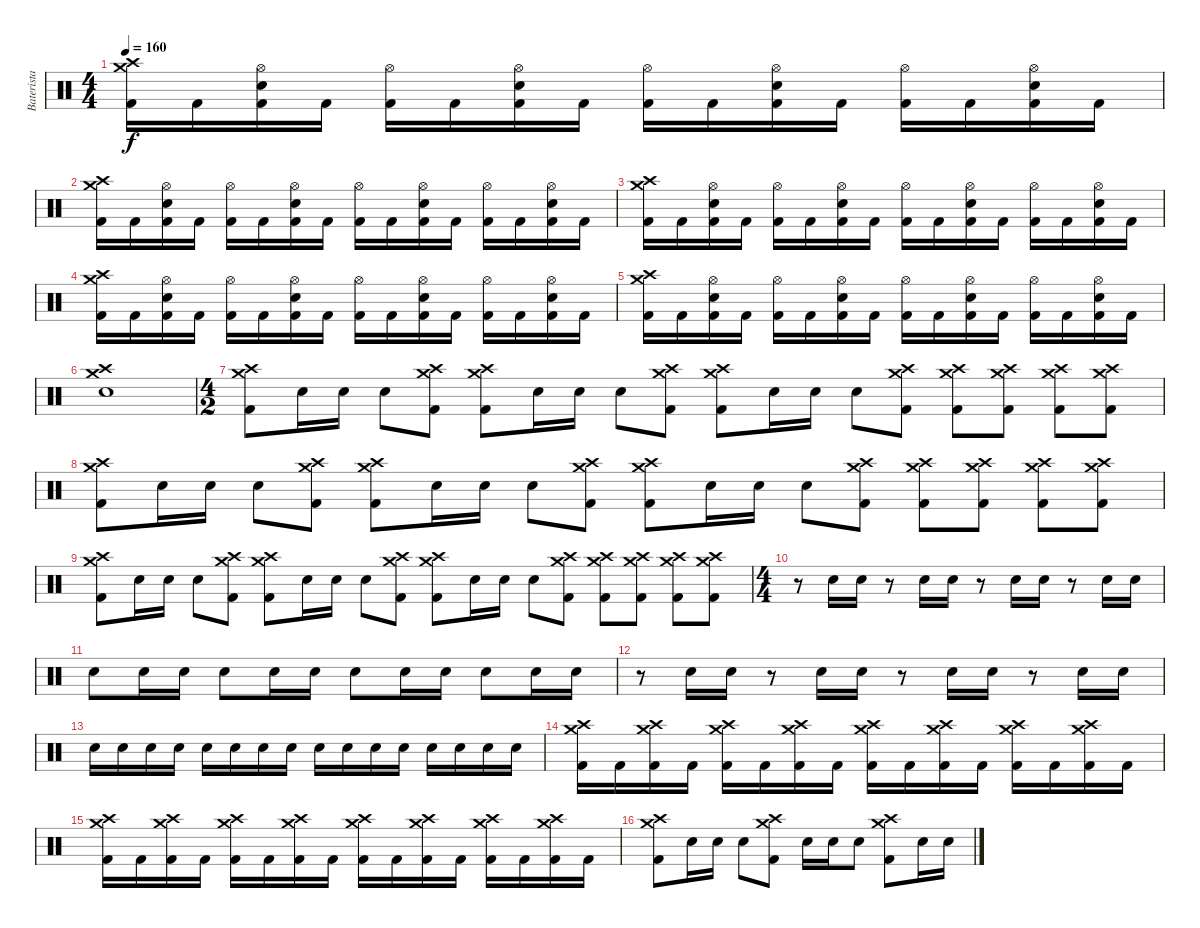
\track ("Baterista" "Baterista") {instrument percussion}
\staff {score}
\articulation defaults
\ts (4 4)
\tempo 160
\clef neutral
\ks c
("Kick (hit) 2" "Crash high (hit)" "Crash medium (hit)").16{dy f} "Kick (hit) 2".16 ("Kick (hit) 2" "Electric Snare (hit)" "Hi-Hat (open)").16 "Kick (hit) 2".16 ("Kick (hit) 2" "Hi-Hat (open)").16 "Kick (hit) 2".16 ("Kick (hit) 2" "Electric Snare (hit)" "Hi-Hat (open)").16 "Kick (hit) 2".16 ("Kick (hit) 2" "Hi-Hat (open)").16 "Kick (hit) 2".16 ("Kick (hit) 2" "Electric Snare (hit)" "Hi-Hat (open)").16 "Kick (hit) 2".16 ("Kick (hit) 2" "Hi-Hat (open)").16 "Kick (hit) 2".16 ("Kick (hit) 2" "Electric Snare (hit)" "Hi-Hat (open)").16 "Kick (hit) 2".16 |
("Kick (hit) 2" "Crash high (hit)" "Crash medium (hit)").16 "Kick (hit) 2".16 ("Kick (hit) 2" "Electric Snare (hit)" "Hi-Hat (open)").16 "Kick (hit) 2".16 ("Kick (hit) 2" "Hi-Hat (open)").16 "Kick (hit) 2".16 ("Kick (hit) 2" "Electric Snare (hit)" "Hi-Hat (open)").16 "Kick (hit) 2".16 ("Kick (hit) 2" "Hi-Hat (open)").16 "Kick (hit) 2".16 ("Kick (hit) 2" "Electric Snare (hit)" "Hi-Hat (open)").16 "Kick (hit) 2".16 ("Kick (hit) 2" "Hi-Hat (open)").16 "Kick (hit) 2".16 ("Kick (hit) 2" "Electric Snare (hit)" "Hi-Hat (open)").16 "Kick (hit) 2".16 |
("Kick (hit) 2" "Crash high (hit)" "Crash medium (hit)").16 "Kick (hit) 2".16 ("Kick (hit) 2" "Electric Snare (hit)" "Hi-Hat (open)").16 "Kick (hit) 2".16 ("Kick (hit) 2" "Hi-Hat (open)").16 "Kick (hit) 2".16 ("Kick (hit) 2" "Electric Snare (hit)" "Hi-Hat (open)").16 "Kick (hit) 2".16 ("Kick (hit) 2" "Hi-Hat (open)").16 "Kick (hit) 2".16 ("Kick (hit) 2" "Electric Snare (hit)" "Hi-Hat (open)").16 "Kick (hit) 2".16 ("Kick (hit) 2" "Hi-Hat (open)").16 "Kick (hit) 2".16 ("Kick (hit) 2" "Electric Snare (hit)" "Hi-Hat (open)").16 "Kick (hit) 2".16 |
("Kick (hit) 2" "Crash high (hit)" "Crash medium (hit)").16 "Kick (hit) 2".16 ("Kick (hit) 2" "Electric Snare (hit)" "Hi-Hat (open)").16 "Kick (hit) 2".16 ("Kick (hit) 2" "Hi-Hat (open)").16 "Kick (hit) 2".16 ("Kick (hit) 2" "Electric Snare (hit)" "Hi-Hat (open)").16 "Kick (hit) 2".16 ("Kick (hit) 2" "Hi-Hat (open)").16 "Kick (hit) 2".16 ("Kick (hit) 2" "Electric Snare (hit)" "Hi-Hat (open)").16 "Kick (hit) 2".16 ("Kick (hit) 2" "Hi-Hat (open)").16 "Kick (hit) 2".16 ("Kick (hit) 2" "Electric Snare (hit)" "Hi-Hat (open)").16 "Kick (hit) 2".16 |
("Kick (hit) 2" "Crash high (hit)" "Crash medium (hit)").16 "Kick (hit) 2".16 ("Kick (hit) 2" "Electric Snare (hit)" "Hi-Hat (open)").16 "Kick (hit) 2".16 ("Kick (hit) 2" "Hi-Hat (open)").16 "Kick (hit) 2".16 ("Kick (hit) 2" "Electric Snare (hit)" "Hi-Hat (open)").16 "Kick (hit) 2".16 ("Kick (hit) 2" "Hi-Hat (open)").16 "Kick (hit) 2".16 ("Kick (hit) 2" "Electric Snare (hit)" "Hi-Hat (open)").16 "Kick (hit) 2".16 ("Kick (hit) 2" "Hi-Hat (open)").16 "Kick (hit) 2".16 ("Kick (hit) 2" "Electric Snare (hit)" "Hi-Hat (open)").16 "Kick (hit) 2".16 |
("Electric Snare (hit)" "Crash high (hit)" "Crash medium (hit)").1 |
\ts (4 2)
("Kick (hit) 2" "Crash high (hit)" "Crash medium (hit)").8 "Electric Snare (hit)".16 "Electric Snare (hit)".16 "Electric Snare (hit)".8 ("Kick (hit) 2" "Crash high (hit)" "Crash medium (hit)").8 ("Kick (hit) 2" "Crash high (hit)" "Crash medium (hit)").8 "Electric Snare (hit)".16 "Electric Snare (hit)".16 "Electric Snare (hit)".8 ("Kick (hit) 2" "Crash high (hit)" "Crash medium (hit)").8 ("Kick (hit) 2" "Crash high (hit)" "Crash medium (hit)").8 "Electric Snare (hit)".16 "Electric Snare (hit)".16 "Electric Snare (hit)".8 ("Kick (hit) 2" "Crash high (hit)" "Crash medium (hit)").8 ("Kick (hit) 2" "Crash high (hit)" "Crash medium (hit)").8 ("Kick (hit) 2" "Crash high (hit)" "Crash medium (hit)").8 ("Kick (hit) 2" "Crash high (hit)" "Crash medium (hit)").8 ("Kick (hit) 2" "Crash high (hit)" "Crash medium (hit)").8 |
("Kick (hit) 2" "Crash high (hit)" "Crash medium (hit)").8 "Electric Snare (hit)".16 "Electric Snare (hit)".16 "Electric Snare (hit)".8 ("Kick (hit) 2" "Crash high (hit)" "Crash medium (hit)").8 ("Kick (hit) 2" "Crash high (hit)" "Crash medium (hit)").8 "Electric Snare (hit)".16 "Electric Snare (hit)".16 "Electric Snare (hit)".8 ("Kick (hit) 2" "Crash high (hit)" "Crash medium (hit)").8 ("Kick (hit) 2" "Crash high (hit)" "Crash medium (hit)").8 "Electric Snare (hit)".16 "Electric Snare (hit)".16 "Electric Snare (hit)".8 ("Kick (hit) 2" "Crash high (hit)" "Crash medium (hit)").8 ("Kick (hit) 2" "Crash high (hit)" "Crash medium (hit)").8 ("Kick (hit) 2" "Crash high (hit)" "Crash medium (hit)").8 ("Kick (hit) 2" "Crash high (hit)" "Crash medium (hit)").8 ("Kick (hit) 2" "Crash high (hit)" "Crash medium (hit)").8 |
("Kick (hit) 2" "Crash high (hit)" "Crash medium (hit)").8 "Electric Snare (hit)".16 "Electric Snare (hit)".16 "Electric Snare (hit)".8 ("Kick (hit) 2" "Crash high (hit)" "Crash medium (hit)").8 ("Kick (hit) 2" "Crash high (hit)" "Crash medium (hit)").8 "Electric Snare (hit)".16 "Electric Snare (hit)".16 "Electric Snare (hit)".8 ("Kick (hit) 2" "Crash high (hit)" "Crash medium (hit)").8 ("Kick (hit) 2" "Crash high (hit)" "Crash medium (hit)").8 "Electric Snare (hit)".16 "Electric Snare (hit)".16 "Electric Snare (hit)".8 ("Kick (hit) 2" "Crash high (hit)" "Crash medium (hit)").8 ("Kick (hit) 2" "Crash high (hit)" "Crash medium (hit)").8 ("Kick (hit) 2" "Crash high (hit)" "Crash medium (hit)").8 ("Kick (hit) 2" "Crash high (hit)" "Crash medium (hit)").8 ("Kick (hit) 2" "Crash high (hit)" "Crash medium (hit)").8 |
\ts (4 4)
r.8 "Electric Snare (hit)".16 "Electric Snare (hit)".16 r.8 "Electric Snare (hit)".16 "Electric Snare (hit)".16 r.8 "Electric Snare (hit)".16 "Electric Snare (hit)".16 r.8 "Electric Snare (hit)".16 "Electric Snare (hit)".16 |
"Electric Snare (hit)".8 "Electric Snare (hit)".16 "Electric Snare (hit)".16 "Electric Snare (hit)".8 "Electric Snare (hit)".16 "Electric Snare (hit)".16 "Electric Snare (hit)".8 "Electric Snare (hit)".16 "Electric Snare (hit)".16 "Electric Snare (hit)".8 "Electric Snare (hit)".16 "Electric Snare (hit)".16 |
r.8 "Electric Snare (hit)".16 "Electric Snare (hit)".16 r.8 "Electric Snare (hit)".16 "Electric Snare (hit)".16 r.8 "Electric Snare (hit)".16 "Electric Snare (hit)".16 r.8 "Electric Snare (hit)".16 "Electric Snare (hit)".16 |
"Electric Snare (hit)".16 "Electric Snare (hit)".16 "Electric Snare (hit)".16 "Electric Snare (hit)".16 "Electric Snare (hit)".16 "Electric Snare (hit)".16 "Electric Snare (hit)".16 "Electric Snare (hit)".16 "Electric Snare (hit)".16 "Electric Snare (hit)".16 "Electric Snare (hit)".16 "Electric Snare (hit)".16 "Electric Snare (hit)".16 "Electric Snare (hit)".16 "Electric Snare (hit)".16 "Electric Snare (hit)".16 |
("Kick (hit) 2" "Crash high (hit)" "Crash medium (hit)").16 "Kick (hit) 2".16 ("Kick (hit) 2" "Crash high (hit)" "Crash medium (hit)").16 "Kick (hit) 2".16 ("Kick (hit) 2" "Crash high (hit)" "Crash medium (hit)").16 "Kick (hit) 2".16 ("Kick (hit) 2" "Crash high (hit)" "Crash medium (hit)").16 "Kick (hit) 2".16 ("Kick (hit) 2" "Crash high (hit)" "Crash medium (hit)").16 "Kick (hit) 2".16 ("Kick (hit) 2" "Crash high (hit)" "Crash medium (hit)").16 "Kick (hit) 2".16 ("Kick (hit) 2" "Crash high (hit)" "Crash medium (hit)").16 "Kick (hit) 2".16 ("Kick (hit) 2" "Crash high (hit)" "Crash medium (hit)").16 "Kick (hit) 2".16 |
("Kick (hit) 2" "Crash high (hit)" "Crash medium (hit)").16 "Kick (hit) 2".16 ("Kick (hit) 2" "Crash high (hit)" "Crash medium (hit)").16 "Kick (hit) 2".16 ("Kick (hit) 2" "Crash high (hit)" "Crash medium (hit)").16 "Kick (hit) 2".16 ("Kick (hit) 2" "Crash high (hit)" "Crash medium (hit)").16 "Kick (hit) 2".16 ("Kick (hit) 2" "Crash high (hit)" "Crash medium (hit)").16 "Kick (hit) 2".16 ("Kick (hit) 2" "Crash high (hit)" "Crash medium (hit)").16 "Kick (hit) 2".16 ("Kick (hit) 2" "Crash high (hit)" "Crash medium (hit)").16 "Kick (hit) 2".16 ("Kick (hit) 2" "Crash high (hit)" "Crash medium (hit)").16 "Kick (hit) 2".16 |
("Kick (hit) 2" "Crash high (hit)" "Crash medium (hit)").8 "Electric Snare (hit)".16 "Electric Snare (hit)".16 "Electric Snare (hit)".8 ("Kick (hit) 2" "Crash high (hit)" "Crash medium (hit)").8 "Electric Snare (hit)".16 "Electric Snare (hit)".16 "Electric Snare (hit)".8 ("Kick (hit) 2" "Crash high (hit)" "Crash medium (hit)").8 "Electric Snare (hit)".16 "Electric Snare (hit)".16
